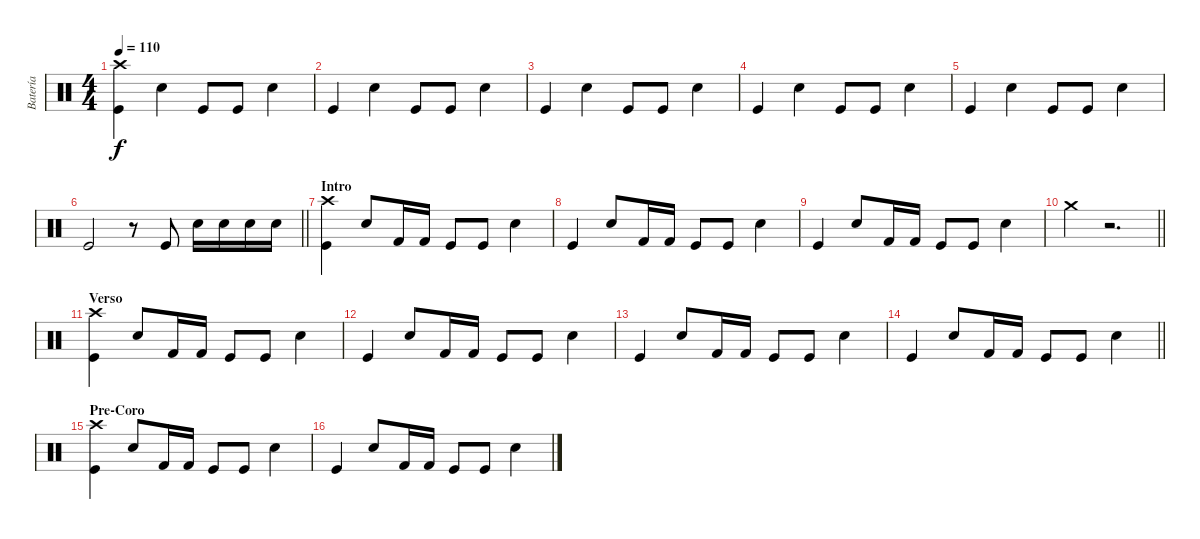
\track ("Batería" "Batería") {instrument percussion}
\staff {score}
\articulation defaults
\ts (4 4)
\section ("" "")
\tempo 110
\clef neutral
\ks c
("Kick (hit)" "Crash high (hit)").4{dy f} "Electric Snare (hit)".4 "Kick (hit)".8 "Kick (hit)".8 "Electric Snare (hit)".4 |
"Kick (hit)".4 "Electric Snare (hit)".4 "Kick (hit)".8 "Kick (hit)".8 "Electric Snare (hit)".4 |
"Kick (hit)".4 "Electric Snare (hit)".4 "Kick (hit)".8 "Kick (hit)".8 "Electric Snare (hit)".4 |
"Kick (hit)".4 "Electric Snare (hit)".4 "Kick (hit)".8 "Kick (hit)".8 "Electric Snare (hit)".4 |
"Kick (hit)".4 "Electric Snare (hit)".4 "Kick (hit)".8 "Kick (hit)".8 "Electric Snare (hit)".4 |
\barLineRight lightlight "Kick (hit)".2
r.8 "Kick (hit)".8 "Snare (hit) 2".16 "Snare (hit) 2".16 "Snare (hit) 2".16 "Snare (hit) 2".16 |
\section ("" "Intro")
("Kick (hit)" "Crash high (hit)").4 "Electric Snare (hit)".8 "Kick (hit) 2".16 "Kick (hit) 2".16 "Kick (hit)".8 "Kick (hit)".8 "Electric Snare (hit)".4 |
"Kick (hit)".4 "Electric Snare (hit)".8 "Kick (hit) 2".16 "Kick (hit) 2".16 "Kick (hit)".8 "Kick (hit)".8 "Electric Snare (hit)".4 |
"Kick (hit)".4 "Electric Snare (hit)".8 "Kick (hit) 2".16 "Kick (hit) 2".16 "Kick (hit)".8 "Kick (hit)".8 "Electric Snare (hit)".4 |
\barLineRight lightlight "Crash medium (hit)".4
r.2{d} |
\section ("" "Verso")
("Kick (hit)" "Crash high (hit)").4 "Electric Snare (hit)".8 "Kick (hit) 2".16 "Kick (hit) 2".16 "Kick (hit)".8 "Kick (hit)".8 "Electric Snare (hit)".4 |
"Kick (hit)".4 "Electric Snare (hit)".8 "Kick (hit) 2".16 "Kick (hit) 2".16 "Kick (hit)".8 "Kick (hit)".8 "Electric Snare (hit)".4 |
"Kick (hit)".4 "Electric Snare (hit)".8 "Kick (hit) 2".16 "Kick (hit) 2".16 "Kick (hit)".8 "Kick (hit)".8 "Electric Snare (hit)".4 |
\barLineRight lightlight "Kick (hit)".4 "Electric Snare (hit)".8 "Kick (hit) 2".16 "Kick (hit) 2".16 "Kick (hit)".8 "Kick (hit)".8 "Electric Snare (hit)".4
|
\section ("" "Pre-Coro")
("Kick (hit)" "Crash high (hit)").4 "Electric Snare (hit)".8 "Kick (hit) 2".16 "Kick (hit) 2".16 "Kick (hit)".8 "Kick (hit)".8 "Electric Snare (hit)".4 |
"Kick (hit)".4 "Electric Snare (hit)".8 "Kick (hit) 2".16 "Kick (hit) 2".16 "Kick (hit)".8 "Kick (hit)".8 "Electric Snare (hit)".4
